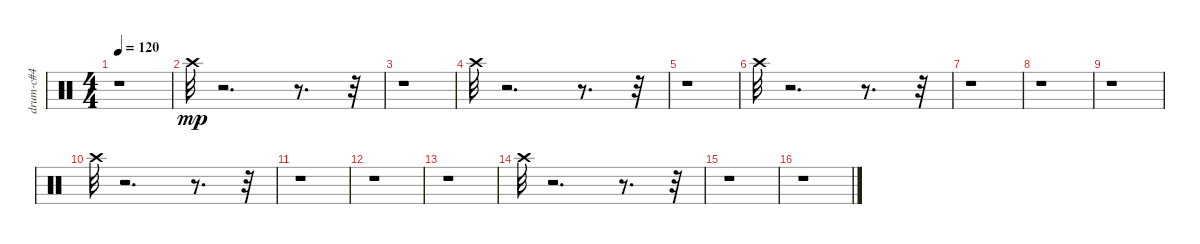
\track ("drum-c#4" "drum-c#4") {instrument percussion}
\staff {score}
\articulation defaults
\ts (4 4)
\tempo 120
\clef neutral
\ks c
r.1{dy mp} |
"Crash high (hit)".32 r.2{d} r.8{d} r.32 |
r.1 |
"Crash high (hit)".32 r.2{d} r.8{d} r.32 |
r.1 |
"Crash high (hit)".32 r.2{d} r.8{d} r.32 |
r.1 |
r.1 |
r.1 |
"Crash high (hit)".32 r.2{d} r.8{d} r.32 |
r.1 |
r.1 |
r.1 |
"Crash high (hit)".32 r.2{d} r.8{d} r.32 |
r.1 |
r.1
